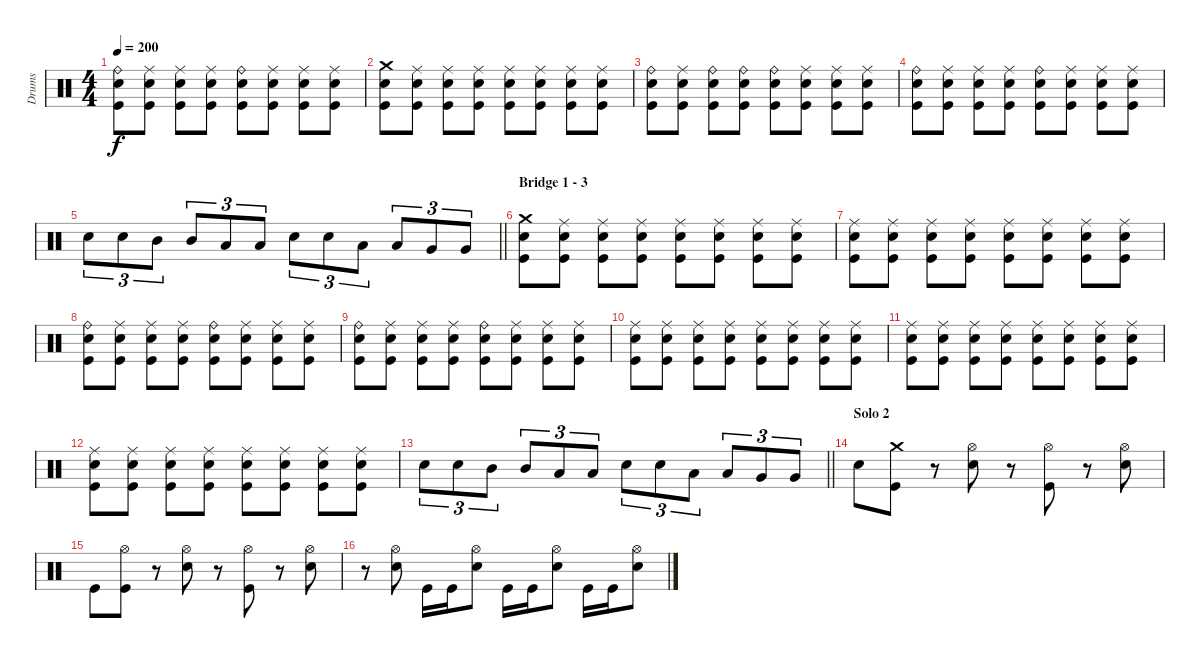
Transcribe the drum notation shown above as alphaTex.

\track ("Drums" "Drums") {instrument percussion}
\staff {score}
\articulation defaults
\ts (4 4)
\tempo 200
\clef neutral
\ks c
("Ride (bell)" "Snare (hit) 2" "Kick (hit)").8{dy f} ("Ride (middle)" "Snare (hit) 2" "Kick (hit)").8 ("Ride (middle)" "Snare (hit) 2" "Kick (hit)").8 ("Ride (middle)" "Snare (hit) 2" "Kick (hit)").8 ("Ride (bell)" "Snare (hit) 2" "Kick (hit)").8 ("Ride (middle)" "Snare (hit) 2" "Kick (hit)").8 ("Ride (middle)" "Snare (hit) 2" "Kick (hit)").8 ("Ride (middle)" "Snare (hit) 2" "Kick (hit)").8 |
("Crash medium (hit)" "Snare (hit) 2" "Kick (hit)").8 ("Ride (middle)" "Snare (hit) 2" "Kick (hit)").8 ("Ride (middle)" "Snare (hit) 2" "Kick (hit)").8 ("Ride (middle)" "Snare (hit) 2" "Kick (hit)").8 ("Ride (middle)" "Snare (hit) 2" "Kick (hit)").8 ("Ride (middle)" "Snare (hit) 2" "Kick (hit)").8 ("Ride (middle)" "Snare (hit) 2" "Kick (hit)").8 ("Ride (middle)" "Snare (hit) 2" "Kick (hit)").8 |
("Ride (bell)" "Snare (hit) 2" "Kick (hit)").8 ("Ride (middle)" "Snare (hit) 2" "Kick (hit)").8 ("Ride (bell)" "Snare (hit) 2" "Kick (hit)").8 ("Ride (bell)" "Snare (hit) 2" "Kick (hit)").8 ("Ride (bell)" "Snare (hit) 2" "Kick (hit)").8 ("Ride (middle)" "Snare (hit) 2" "Kick (hit)").8 ("Ride (middle)" "Snare (hit) 2" "Kick (hit)").8 ("Ride (middle)" "Snare (hit) 2" "Kick (hit)").8 |
("Ride (bell)" "Snare (hit) 2" "Kick (hit)").8 ("Ride (middle)" "Snare (hit) 2" "Kick (hit)").8 ("Ride (middle)" "Snare (hit) 2" "Kick (hit)").8 ("Ride (middle)" "Snare (hit) 2" "Kick (hit)").8 ("Ride (bell)" "Snare (hit) 2" "Kick (hit)").8 ("Ride (middle)" "Snare (hit) 2" "Kick (hit)").8 ("Ride (middle)" "Snare (hit) 2" "Kick (hit)").8 ("Ride (middle)" "Snare (hit) 2" "Kick (hit)").8 |
\barLineRight lightlight "Snare (hit) 2".8{tu (3 2)} "Snare (hit) 2".8{tu (3 2)} "Mid Tom (hit)".8{tu (3 2)} "Mid Tom (hit)".8{tu (3 2)} "Low Tom (hit)".8{tu (3 2)} "Low Tom (hit)".8{tu (3 2)} "Snare (hit) 2".8{tu (3 2)} "Snare (hit) 2".8{tu (3 2)} "Low Tom (hit)".8{tu (3 2)} "Low Tom (hit)".8{tu (3 2)} "Very Low Tom (hit)".8{tu (3 2)} "Very Low Tom (hit)".8{tu (3 2)}
|
\section ("" "Bridge 1 - 3")
("Crash medium (hit)" "Snare (hit) 2" "Kick (hit)").8 ("Ride (middle)" "Snare (hit) 2" "Kick (hit)").8 ("Ride (middle)" "Snare (hit) 2" "Kick (hit)").8 ("Ride (middle)" "Snare (hit) 2" "Kick (hit)").8 ("Ride (middle)" "Snare (hit) 2" "Kick (hit)").8 ("Ride (middle)" "Snare (hit) 2" "Kick (hit)").8 ("Ride (middle)" "Snare (hit) 2" "Kick (hit)").8 ("Ride (middle)" "Snare (hit) 2" "Kick (hit)").8 |
("Ride (middle)" "Snare (hit) 2" "Kick (hit)").8 ("Ride (middle)" "Snare (hit) 2" "Kick (hit)").8 ("Ride (middle)" "Snare (hit) 2" "Kick (hit)").8 ("Ride (middle)" "Snare (hit) 2" "Kick (hit)").8 ("Ride (middle)" "Snare (hit) 2" "Kick (hit)").8 ("Ride (middle)" "Snare (hit) 2" "Kick (hit)").8 ("Ride (middle)" "Snare (hit) 2" "Kick (hit)").8 ("Ride (middle)" "Snare (hit) 2" "Kick (hit)").8 |
("Ride (bell)" "Snare (hit) 2" "Kick (hit)").8 ("Ride (middle)" "Snare (hit) 2" "Kick (hit)").8 ("Ride (middle)" "Snare (hit) 2" "Kick (hit)").8 ("Ride (middle)" "Snare (hit) 2" "Kick (hit)").8 ("Ride (bell)" "Snare (hit) 2" "Kick (hit)").8 ("Ride (middle)" "Snare (hit) 2" "Kick (hit)").8 ("Ride (middle)" "Snare (hit) 2" "Kick (hit)").8 ("Ride (middle)" "Snare (hit) 2" "Kick (hit)").8 |
("Ride (bell)" "Snare (hit) 2" "Kick (hit)").8 ("Ride (middle)" "Snare (hit) 2" "Kick (hit)").8 ("Ride (middle)" "Snare (hit) 2" "Kick (hit)").8 ("Ride (middle)" "Snare (hit) 2" "Kick (hit)").8 ("Ride (bell)" "Snare (hit) 2" "Kick (hit)").8 ("Ride (middle)" "Snare (hit) 2" "Kick (hit)").8 ("Ride (middle)" "Snare (hit) 2" "Kick (hit)").8 ("Ride (middle)" "Snare (hit) 2" "Kick (hit)").8 |
("Ride (middle)" "Snare (hit) 2" "Kick (hit)").8 ("Ride (middle)" "Snare (hit) 2" "Kick (hit)").8 ("Ride (middle)" "Snare (hit) 2" "Kick (hit)").8 ("Ride (middle)" "Snare (hit) 2" "Kick (hit)").8 ("Ride (middle)" "Snare (hit) 2" "Kick (hit)").8 ("Ride (middle)" "Snare (hit) 2" "Kick (hit)").8 ("Ride (middle)" "Snare (hit) 2" "Kick (hit)").8 ("Ride (middle)" "Snare (hit) 2" "Kick (hit)").8 |
("Ride (middle)" "Snare (hit) 2" "Kick (hit)").8 ("Ride (middle)" "Snare (hit) 2" "Kick (hit)").8 ("Ride (middle)" "Snare (hit) 2" "Kick (hit)").8 ("Ride (middle)" "Snare (hit) 2" "Kick (hit)").8 ("Ride (middle)" "Snare (hit) 2" "Kick (hit)").8 ("Ride (middle)" "Snare (hit) 2" "Kick (hit)").8 ("Ride (middle)" "Snare (hit) 2" "Kick (hit)").8 ("Ride (middle)" "Snare (hit) 2" "Kick (hit)").8 |
("Ride (middle)" "Snare (hit) 2" "Kick (hit)").8 ("Ride (middle)" "Snare (hit) 2" "Kick (hit)").8 ("Ride (middle)" "Snare (hit) 2" "Kick (hit)").8 ("Ride (middle)" "Snare (hit) 2" "Kick (hit)").8 ("Ride (middle)" "Snare (hit) 2" "Kick (hit)").8 ("Ride (middle)" "Snare (hit) 2" "Kick (hit)").8 ("Ride (middle)" "Snare (hit) 2" "Kick (hit)").8 ("Ride (middle)" "Snare (hit) 2" "Kick (hit)").8 |
\barLineRight lightlight "Snare (hit) 2".8{tu (3 2)} "Snare (hit) 2".8{tu (3 2)} "Mid Tom (hit)".8{tu (3 2)} "Mid Tom (hit)".8{tu (3 2)} "Low Tom (hit)".8{tu (3 2)} "Low Tom (hit)".8{tu (3 2)} "Snare (hit) 2".8{tu (3 2)} "Snare (hit) 2".8{tu (3 2)} "Low Tom (hit)".8{tu (3 2)} "Low Tom (hit)".8{tu (3 2)} "Very Low Tom (hit)".8{tu (3 2)} "Very Low Tom (hit)".8{tu (3 2)}
|
\section ("" "Solo 2")
"Snare (hit) 2".8 ("Crash medium (hit)" "Kick (hit)").8 r.8 ("Hi-Hat (open)" "Snare (hit) 2").8 r.8 ("Hi-Hat (open)" "Kick (hit)").8 r.8 ("Hi-Hat (open)" "Snare (hit) 2").8 |
"Kick (hit)".8 ("Hi-Hat (open)" "Kick (hit)").8 r.8 ("Hi-Hat (open)" "Snare (hit) 2").8 r.8 ("Hi-Hat (open)" "Kick (hit)").8 r.8 ("Hi-Hat (open)" "Snare (hit) 2").8 |
r.8 ("Hi-Hat (open)" "Snare (hit) 2").8 "Kick (hit)".16 "Kick (hit)".16 ("Hi-Hat (open)" "Snare (hit) 2").8 "Kick (hit)".16 "Kick (hit)".16 ("Hi-Hat (open)" "Snare (hit) 2").8 "Kick (hit)".16 "Kick (hit)".16 ("Hi-Hat (open)" "Snare (hit) 2").8
